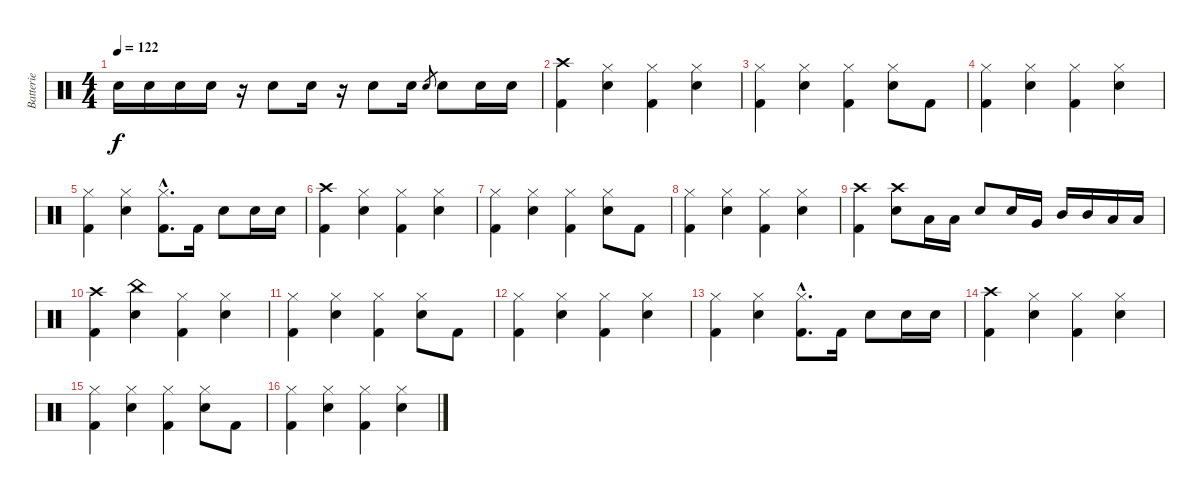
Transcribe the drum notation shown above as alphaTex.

\track ("Batterie" "Batterie") {instrument percussion}
\staff {score}
\articulation defaults
\ts (4 4)
\tempo 122
\clef neutral
\ks c "Snare (hit) 2".16{dy f} "Snare (hit) 2".16 "Snare (hit) 2".16 "Snare (hit) 2".16
r.16 "Snare (hit) 2".8 "Snare (hit) 2".16 r.16 "Snare (hit) 2".8 "Snare (hit) 2".16 "Snare (hit) 2".8{gr} "Snare (hit) 2".8 "Snare (hit) 2".16 "Snare (hit) 2".16 |
("Crash high (hit)" "Kick (hit) 2").4 ("Hi-Hat (closed)" "Snare (hit) 2").4 ("Hi-Hat (closed)" "Kick (hit) 2").4 ("Hi-Hat (closed)" "Snare (hit) 2").4 |
("Hi-Hat (closed)" "Kick (hit) 2").4 ("Hi-Hat (closed)" "Snare (hit) 2").4 ("Hi-Hat (closed)" "Kick (hit) 2").4 ("Hi-Hat (closed)" "Snare (hit) 2").8 "Kick (hit) 2".8 |
("Hi-Hat (closed)" "Kick (hit) 2").4 ("Hi-Hat (closed)" "Snare (hit) 2").4 ("Hi-Hat (closed)" "Kick (hit) 2").4 ("Hi-Hat (closed)" "Snare (hit) 2").4 |
("Hi-Hat (closed)" "Kick (hit) 2").4 ("Hi-Hat (closed)" "Snare (hit) 2").4 ("Hi-Hat (closed)"{hac} "Kick (hit) 2"{hac}).8{d} "Kick (hit) 2".16 "Snare (hit) 2".8 "Snare (hit) 2".16 "Snare (hit) 2".16 |
("Crash high (hit)" "Kick (hit) 2").4 ("Hi-Hat (closed)" "Snare (hit) 2").4 ("Hi-Hat (closed)" "Kick (hit) 2").4 ("Hi-Hat (closed)" "Snare (hit) 2").4 |
("Hi-Hat (closed)" "Kick (hit) 2").4 ("Hi-Hat (closed)" "Snare (hit) 2").4 ("Hi-Hat (closed)" "Kick (hit) 2").4 ("Hi-Hat (closed)" "Snare (hit) 2").8 "Kick (hit) 2".8 |
("Hi-Hat (closed)" "Kick (hit) 2").4 ("Hi-Hat (closed)" "Snare (hit) 2").4 ("Hi-Hat (closed)" "Kick (hit) 2").4 ("Hi-Hat (closed)" "Snare (hit) 2").4 |
("Crash high (hit)" "Kick (hit) 2").4 ("Crash high (hit)" "Snare (hit) 2").8 "Low Tom (hit)".16 "Low Tom (hit)".16 "Snare (hit) 2".8 "Snare (hit) 2".16 "Very Low Tom (hit)".16 "Mid Tom (hit)".16 "Mid Tom (hit)".16 "Low Tom (hit)".16 "Low Tom (hit)".16 |
("Crash high (hit)" "Kick (hit) 2").4 ("China (hit)" "Snare (hit) 2").4 ("Hi-Hat (closed)" "Kick (hit) 2").4 ("Hi-Hat (closed)" "Snare (hit) 2").4 |
("Hi-Hat (closed)" "Kick (hit) 2").4 ("Hi-Hat (closed)" "Snare (hit) 2").4 ("Hi-Hat (closed)" "Kick (hit) 2").4 ("Hi-Hat (closed)" "Snare (hit) 2").8 "Kick (hit) 2".8 |
("Hi-Hat (closed)" "Kick (hit) 2").4 ("Hi-Hat (closed)" "Snare (hit) 2").4 ("Hi-Hat (closed)" "Kick (hit) 2").4 ("Hi-Hat (closed)" "Snare (hit) 2").4 |
("Hi-Hat (closed)" "Kick (hit) 2").4 ("Hi-Hat (closed)" "Snare (hit) 2").4 ("Hi-Hat (closed)"{hac} "Kick (hit) 2"{hac}).8{d} "Kick (hit) 2".16 "Snare (hit) 2".8 "Snare (hit) 2".16 "Snare (hit) 2".16 |
("Crash high (hit)" "Kick (hit) 2").4 ("Hi-Hat (closed)" "Snare (hit) 2").4 ("Hi-Hat (closed)" "Kick (hit) 2").4 ("Hi-Hat (closed)" "Snare (hit) 2").4 |
("Hi-Hat (closed)" "Kick (hit) 2").4 ("Hi-Hat (closed)" "Snare (hit) 2").4 ("Hi-Hat (closed)" "Kick (hit) 2").4 ("Hi-Hat (closed)" "Snare (hit) 2").8 "Kick (hit) 2".8 |
("Hi-Hat (closed)" "Kick (hit) 2").4 ("Hi-Hat (closed)" "Snare (hit) 2").4 ("Hi-Hat (closed)" "Kick (hit) 2").4 ("Hi-Hat (closed)" "Snare (hit) 2").4
